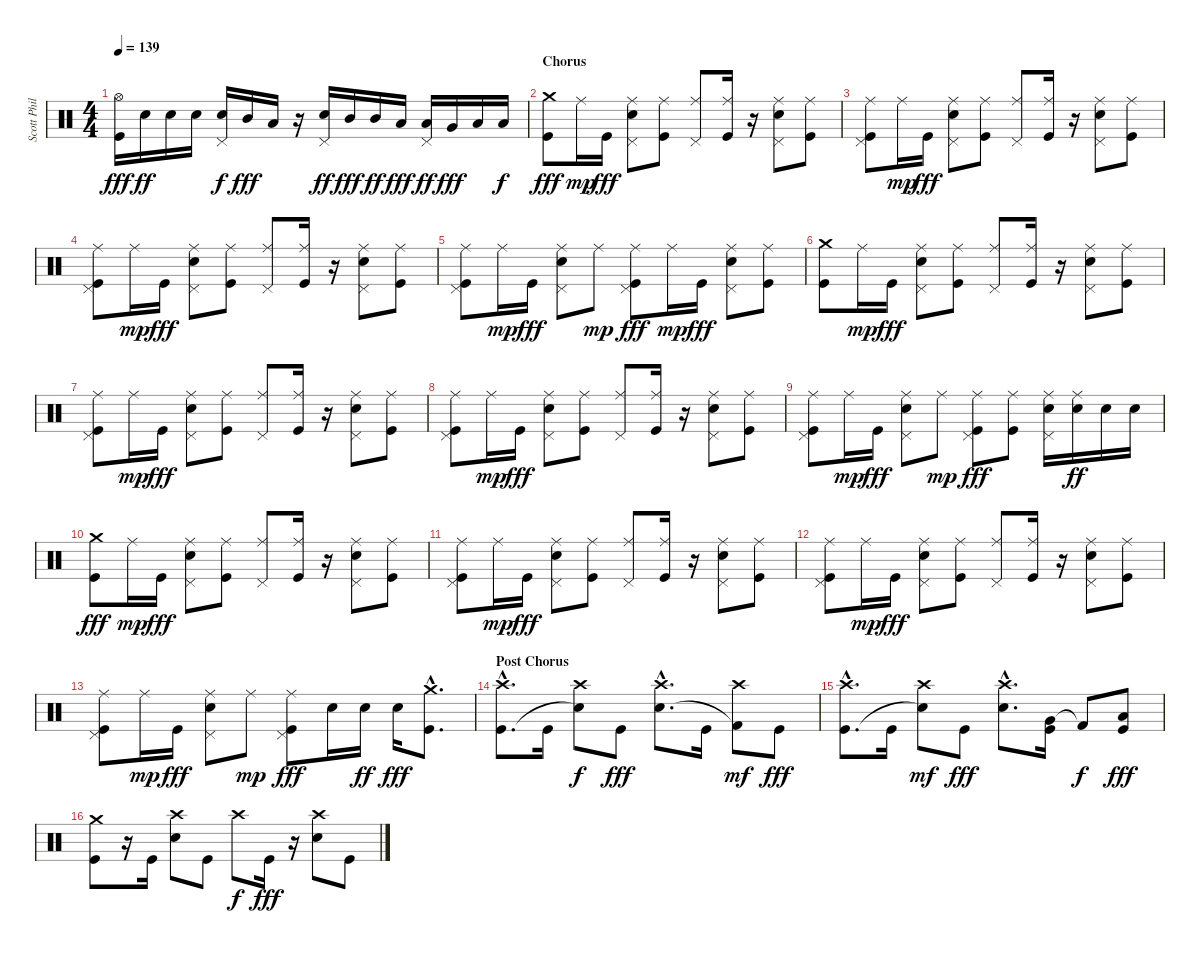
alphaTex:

\track ("Scott Phillips - Drums" "Scott Phil") {instrument percussion}
\staff {score}
\articulation defaults
\ts (4 4)
\tempo 139
\clef neutral
\ks c
("Hi-Hat (open)" "Kick (hit)").16{dy fff} "Electric Snare (hit)".16{dy ff} "Electric Snare (hit)".16 "Electric Snare (hit)".16 ("Pedal Hi-Hat (hit)" "Electric Snare (hit)").16{dy f} "Mid Tom (hit)".16{dy fff} "Low Tom (hit)".16 r.16 ("Pedal Hi-Hat (hit)" "Electric Snare (hit)").16{dy ff} "Mid Tom (hit)".16{dy fff} "Mid Tom (hit)".16{dy ff} "Low Tom (hit)".16{dy fff} ("Pedal Hi-Hat (hit)" "Low Tom (hit)").16{dy ff} "Very Low Tom (hit)".16{dy fff} "Low Floor Tom (hit)".16 "Low Floor Tom (hit)".16{dy f} |
\section ("" "Chorus")
("Crash medium (hit)" "Kick (hit)").8{dy fff} "Ride (middle)".16{dy mp} "Kick (hit)".16{dy fff} ("Pedal Hi-Hat (hit)" "Ride (middle)" "Electric Snare (hit)").8 ("Ride (middle)" "Kick (hit)").8 ("Pedal Hi-Hat (hit)" "Ride (middle)").8 ("Ride (middle)" "Kick (hit)").16 r.16 ("Pedal Hi-Hat (hit)" "Ride (middle)" "Electric Snare (hit)").8 ("Ride (middle)" "Kick (hit)").8 |
("Pedal Hi-Hat (hit)" "Ride (middle)" "Kick (hit)").8 "Ride (middle)".16{dy mp} "Kick (hit)".16{dy fff} ("Pedal Hi-Hat (hit)" "Ride (middle)" "Electric Snare (hit)").8 ("Ride (middle)" "Kick (hit)").8 ("Pedal Hi-Hat (hit)" "Ride (middle)").8 ("Ride (middle)" "Kick (hit)").16 r.16 ("Pedal Hi-Hat (hit)" "Ride (middle)" "Electric Snare (hit)").8 ("Ride (middle)" "Kick (hit)").8 |
("Pedal Hi-Hat (hit)" "Ride (middle)" "Kick (hit)").8 "Ride (middle)".16{dy mp} "Kick (hit)".16{dy fff} ("Pedal Hi-Hat (hit)" "Ride (middle)" "Electric Snare (hit)").8 ("Ride (middle)" "Kick (hit)").8 ("Pedal Hi-Hat (hit)" "Ride (middle)").8 ("Ride (middle)" "Kick (hit)").16 r.16 ("Pedal Hi-Hat (hit)" "Ride (middle)" "Electric Snare (hit)").8 ("Ride (middle)" "Kick (hit)").8 |
("Pedal Hi-Hat (hit)" "Ride (middle)" "Kick (hit)").8 "Ride (middle)".16{dy mp} "Kick (hit)".16{dy fff} ("Pedal Hi-Hat (hit)" "Ride (middle)" "Electric Snare (hit)").8 "Ride (middle)".8{dy mp} ("Pedal Hi-Hat (hit)" "Ride (middle)" "Kick (hit)").8{dy fff} "Ride (middle)".16{dy mp} "Kick (hit)".16{dy fff} ("Pedal Hi-Hat (hit)" "Ride (middle)" "Electric Snare (hit)").8 ("Ride (middle)" "Kick (hit)").8 |
("Crash medium (hit)" "Kick (hit)").8 "Ride (middle)".16{dy mp} "Kick (hit)".16{dy fff} ("Pedal Hi-Hat (hit)" "Ride (middle)" "Electric Snare (hit)").8 ("Ride (middle)" "Kick (hit)").8 ("Pedal Hi-Hat (hit)" "Ride (middle)").8 ("Ride (middle)" "Kick (hit)").16 r.16 ("Pedal Hi-Hat (hit)" "Ride (middle)" "Electric Snare (hit)").8 ("Ride (middle)" "Kick (hit)").8 |
("Pedal Hi-Hat (hit)" "Ride (middle)" "Kick (hit)").8 "Ride (middle)".16{dy mp} "Kick (hit)".16{dy fff} ("Pedal Hi-Hat (hit)" "Ride (middle)" "Electric Snare (hit)").8 ("Ride (middle)" "Kick (hit)").8 ("Pedal Hi-Hat (hit)" "Ride (middle)").8 ("Ride (middle)" "Kick (hit)").16 r.16 ("Pedal Hi-Hat (hit)" "Ride (middle)" "Electric Snare (hit)").8 ("Ride (middle)" "Kick (hit)").8 |
("Pedal Hi-Hat (hit)" "Ride (middle)" "Kick (hit)").8 "Ride (middle)".16{dy mp} "Kick (hit)".16{dy fff} ("Pedal Hi-Hat (hit)" "Ride (middle)" "Electric Snare (hit)").8 ("Ride (middle)" "Kick (hit)").8 ("Pedal Hi-Hat (hit)" "Ride (middle)").8 ("Ride (middle)" "Kick (hit)").16 r.16 ("Pedal Hi-Hat (hit)" "Ride (middle)" "Electric Snare (hit)").8 ("Ride (middle)" "Kick (hit)").8 |
("Pedal Hi-Hat (hit)" "Ride (middle)" "Kick (hit)").8 "Ride (middle)".16{dy mp} "Kick (hit)".16{dy fff} ("Pedal Hi-Hat (hit)" "Ride (middle)" "Electric Snare (hit)").8 "Ride (middle)".8{dy mp} ("Pedal Hi-Hat (hit)" "Ride (middle)" "Kick (hit)").8{dy fff} ("Ride (middle)" "Kick (hit)").8 ("Pedal Hi-Hat (hit)" "Ride (middle)" "Electric Snare (hit)").16 ("Ride (middle)" "Electric Snare (hit)").16{dy ff} "Electric Snare (hit)".16 "Electric Snare (hit)".16 |
("Crash medium (hit)" "Kick (hit)").8{dy fff} "Ride (middle)".16{dy mp} "Kick (hit)".16{dy fff} ("Pedal Hi-Hat (hit)" "Ride (middle)" "Electric Snare (hit)").8 ("Ride (middle)" "Kick (hit)").8 ("Pedal Hi-Hat (hit)" "Ride (middle)").8 ("Ride (middle)" "Kick (hit)").16 r.16 ("Pedal Hi-Hat (hit)" "Ride (middle)" "Electric Snare (hit)").8 ("Ride (middle)" "Kick (hit)").8 |
("Pedal Hi-Hat (hit)" "Ride (middle)" "Kick (hit)").8 "Ride (middle)".16{dy mp} "Kick (hit)".16{dy fff} ("Pedal Hi-Hat (hit)" "Ride (middle)" "Electric Snare (hit)").8 ("Ride (middle)" "Kick (hit)").8 ("Pedal Hi-Hat (hit)" "Ride (middle)").8 ("Ride (middle)" "Kick (hit)").16 r.16 ("Pedal Hi-Hat (hit)" "Ride (middle)" "Electric Snare (hit)").8 ("Ride (middle)" "Kick (hit)").8 |
("Pedal Hi-Hat (hit)" "Ride (middle)" "Kick (hit)").8 "Ride (middle)".16{dy mp} "Kick (hit)".16{dy fff} ("Pedal Hi-Hat (hit)" "Ride (middle)" "Electric Snare (hit)").8 ("Ride (middle)" "Kick (hit)").8 ("Pedal Hi-Hat (hit)" "Ride (middle)").8 ("Ride (middle)" "Kick (hit)").16 r.16 ("Pedal Hi-Hat (hit)" "Ride (middle)" "Electric Snare (hit)").8 ("Ride (middle)" "Kick (hit)").8 |
("Pedal Hi-Hat (hit)" "Ride (middle)" "Kick (hit)").8 "Ride (middle)".16{dy mp} "Kick (hit)".16{dy fff} ("Pedal Hi-Hat (hit)" "Ride (middle)" "Electric Snare (hit)").8 "Ride (middle)".8{dy mp} ("Pedal Hi-Hat (hit)" "Ride (middle)" "Kick (hit)").8{dy fff} "Electric Snare (hit)".16 "Electric Snare (hit)".16{dy ff} "Electric Snare (hit)".16{dy fff} ("Crash medium (hit)"{hac} "Kick (hit)"{hac}).8{d} |
\section ("" "Post Chorus")
("Crash high (hit)"{hac} "Kick (hit)"{hac}).8{d} "Kick (hit)".16 ("Crash high (hit)" "Snare (hit)"{t}).8{dy f} "Kick (hit)".8{dy fff} ("Crash high (hit)"{hac} "Electric Snare (hit)"{hac}).8{d} "Kick (hit)".16 ("Crash high (hit)" "Kick (hit) 2"{t}).8{dy mf} "Kick (hit)".8{dy fff} |
("Crash high (hit)"{hac} "Kick (hit)"{hac}).8{d} "Kick (hit)".16 ("Crash high (hit)" "Snare (hit)"{t}).8{dy mf} "Kick (hit)".8{dy fff} ("Crash high (hit)"{hac} "Electric Snare (hit)"{hac}).8{d} ("Very Low Tom (hit)" "Kick (hit)").16 "Kick (hit) 2"{t}.8{dy f} ("Low Floor Tom (hit)" "Kick (hit)").8{dy fff} |
("Crash medium (hit)" "Kick (hit)").8 r.16 "Kick (hit)".16 ("Crash high (hit)" "Electric Snare (hit)").8 "Kick (hit)".8 "Crash high (hit)".8{dy f} "Kick (hit)".16{dy fff} r.16 ("Crash high (hit)" "Electric Snare (hit)").8 "Kick (hit)".8
